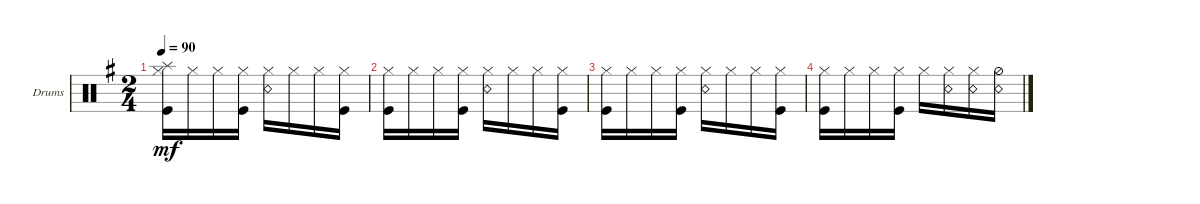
\defaultSystemsLayout 4
\bracketExtendMode groupsimilarinstruments
\firstSystemTrackNameOrientation horizontal
\otherSystemsTrackNameOrientation horizontal
\track ("Drumkit" "Drums") {instrument percussion}
\staff {score}
\articulation defaults
\ts (2 4)
\tempo 90
\clef neutral
\ks eminor
("Hi-Hat (closed)" "Kick (hit)" "Splash (hit)").16{dy mf} "Hi-Hat (closed)".16 "Hi-Hat (closed)".16 ("Hi-Hat (closed)" "Kick (hit)").16 ("Hi-Hat (closed)" "Snare (rim shot)").16 "Hi-Hat (closed)".16 "Hi-Hat (closed)".16 ("Hi-Hat (closed)" "Kick (hit)").16 |
("Hi-Hat (closed)" "Kick (hit)").16 "Hi-Hat (closed)".16 "Hi-Hat (closed)".16 ("Hi-Hat (closed)" "Kick (hit)").16 ("Hi-Hat (closed)" "Snare (rim shot)").16 "Hi-Hat (closed)".16 "Hi-Hat (closed)".16 ("Hi-Hat (closed)" "Kick (hit)").16 |
("Hi-Hat (closed)" "Kick (hit)").16 "Hi-Hat (closed)".16 "Hi-Hat (closed)".16 ("Hi-Hat (closed)" "Kick (hit)").16 ("Hi-Hat (closed)" "Snare (rim shot)").16 "Hi-Hat (closed)".16 "Hi-Hat (closed)".16 ("Hi-Hat (closed)" "Kick (hit)").16 |
("Hi-Hat (closed)" "Kick (hit)").16 "Hi-Hat (closed)".16 "Hi-Hat (closed)".16 ("Hi-Hat (closed)" "Kick (hit)").16 "Hi-Hat (closed)".16 ("Hi-Hat (closed)" "Snare (rim shot)").16 ("Hi-Hat (closed)" "Snare (rim shot)").16 ("Hi-Hat (half)" "Snare (rim shot)").16
